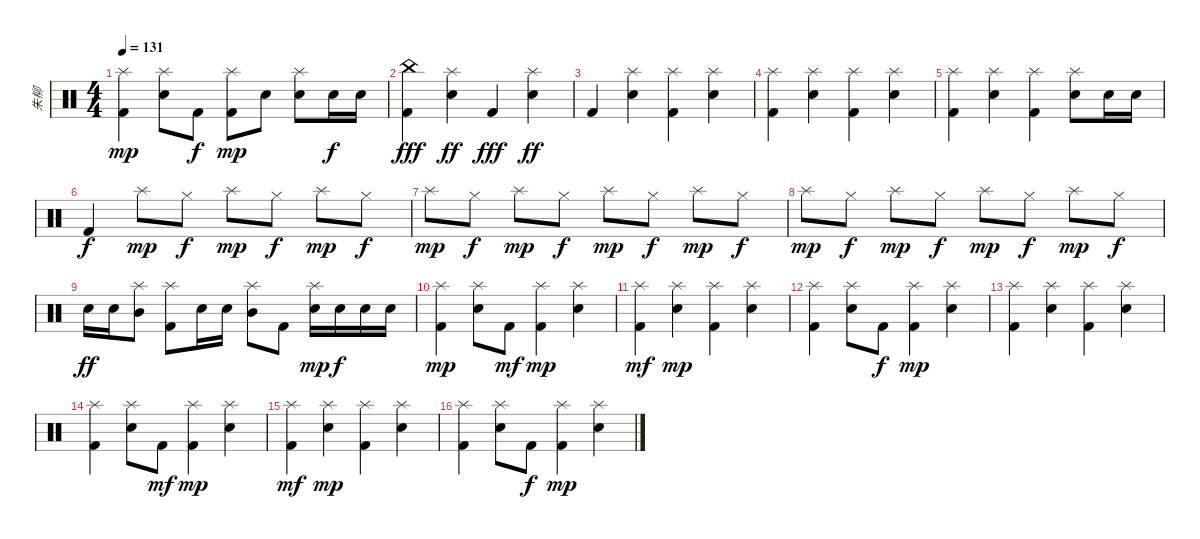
\track ("朱柳" "朱柳") {instrument percussion}
\staff {score}
\articulation defaults
\ts (4 4)
\tempo 131
\clef neutral
\ks c
("Splash (hit)" "Kick (hit) 2").4{dy mp} ("Splash (hit)" "Electric Snare (hit)").8 "Kick (hit) 2".8{dy f} ("Splash (hit)" "Kick (hit) 2").8{dy mp} "Electric Snare (hit)".8 ("Splash (hit)" "Electric Snare (hit)").8 "Electric Snare (hit)".16{dy f} "Electric Snare (hit)".16 |
("China (hit)" "Kick (hit) 2").4{dy fff} ("Splash (hit)" "Electric Snare (hit)").4{dy ff} "Kick (hit) 2".4{dy fff} ("Splash (hit)" "Electric Snare (hit)").4{dy ff} |
"Kick (hit) 2".4 ("Splash (hit)" "Electric Snare (hit)").4 ("Splash (hit)" "Kick (hit) 2").4 ("Splash (hit)" "Electric Snare (hit)").4 |
("Splash (hit)" "Kick (hit) 2").4 ("Splash (hit)" "Electric Snare (hit)").4 ("Splash (hit)" "Kick (hit) 2").4 ("Splash (hit)" "Electric Snare (hit)").4 |
("Splash (hit)" "Kick (hit) 2").4 ("Splash (hit)" "Electric Snare (hit)").4 ("Splash (hit)" "Kick (hit) 2").4 ("Splash (hit)" "Electric Snare (hit)").8 "Electric Snare (hit)".16 "Electric Snare (hit)".16 |
"Kick (hit) 2".4{dy f volume 10} "Splash (hit)".8{dy mp} "Hi-Hat (closed)".8{dy f} "Splash (hit)".8{dy mp} "Hi-Hat (closed)".8{dy f} "Splash (hit)".8{dy mp} "Hi-Hat (closed)".8{dy f} |
"Splash (hit)".8{dy mp} "Hi-Hat (closed)".8{dy f} "Splash (hit)".8{dy mp} "Hi-Hat (closed)".8{dy f} "Splash (hit)".8{dy mp} "Hi-Hat (closed)".8{dy f} "Splash (hit)".8{dy mp} "Hi-Hat (closed)".8{dy f} |
"Splash (hit)".8{dy mp} "Hi-Hat (closed)".8{dy f} "Splash (hit)".8{dy mp} "Hi-Hat (closed)".8{dy f} "Splash (hit)".8{dy mp} "Hi-Hat (closed)".8{dy f} "Splash (hit)".8{dy mp} "Hi-Hat (closed)".8{dy f} |
"Electric Snare (hit)".16{dy ff volume 12} "Electric Snare (hit)".16 ("Splash (hit)" "Mid Tom (hit)").8 ("Splash (hit)" "Kick (hit) 2").8 "Electric Snare (hit)".16 "Electric Snare (hit)".16 ("Splash (hit)" "Mid Tom (hit)").8 "Kick (hit) 2".8 ("Splash (hit)" "Electric Snare (hit)").16{dy mp} "Electric Snare (hit)".16{dy f} "Electric Snare (hit)".16 "Electric Snare (hit)".16 |
("Splash (hit)" "Kick (hit) 2").4{dy mp} ("Splash (hit)" "Electric Snare (hit)").8 "Kick (hit) 2".8{dy mf} ("Splash (hit)" "Kick (hit) 2").4{dy mp} ("Splash (hit)" "Electric Snare (hit)").4 |
("Splash (hit)" "Kick (hit) 2").4{dy mf} ("Splash (hit)" "Electric Snare (hit)").4{dy mp} ("Splash (hit)" "Kick (hit) 2").4 ("Splash (hit)" "Electric Snare (hit)").4 |
("Splash (hit)" "Kick (hit) 2").4 ("Splash (hit)" "Electric Snare (hit)").8 "Kick (hit) 2".8{dy f} ("Splash (hit)" "Kick (hit) 2").4{dy mp} ("Splash (hit)" "Electric Snare (hit)").4 |
("Splash (hit)" "Kick (hit) 2").4 ("Splash (hit)" "Electric Snare (hit)").4 ("Splash (hit)" "Kick (hit) 2").4 ("Splash (hit)" "Electric Snare (hit)").4 |
("Splash (hit)" "Kick (hit) 2").4 ("Splash (hit)" "Electric Snare (hit)").8 "Kick (hit) 2".8{dy mf} ("Splash (hit)" "Kick (hit) 2").4{dy mp} ("Splash (hit)" "Electric Snare (hit)").4 |
("Splash (hit)" "Kick (hit) 2").4{dy mf} ("Splash (hit)" "Electric Snare (hit)").4{dy mp} ("Splash (hit)" "Kick (hit) 2").4 ("Splash (hit)" "Electric Snare (hit)").4 |
("Splash (hit)" "Kick (hit) 2").4 ("Splash (hit)" "Electric Snare (hit)").8 "Kick (hit) 2".8{dy f} ("Splash (hit)" "Kick (hit) 2").4{dy mp} ("Splash (hit)" "Electric Snare (hit)").4
